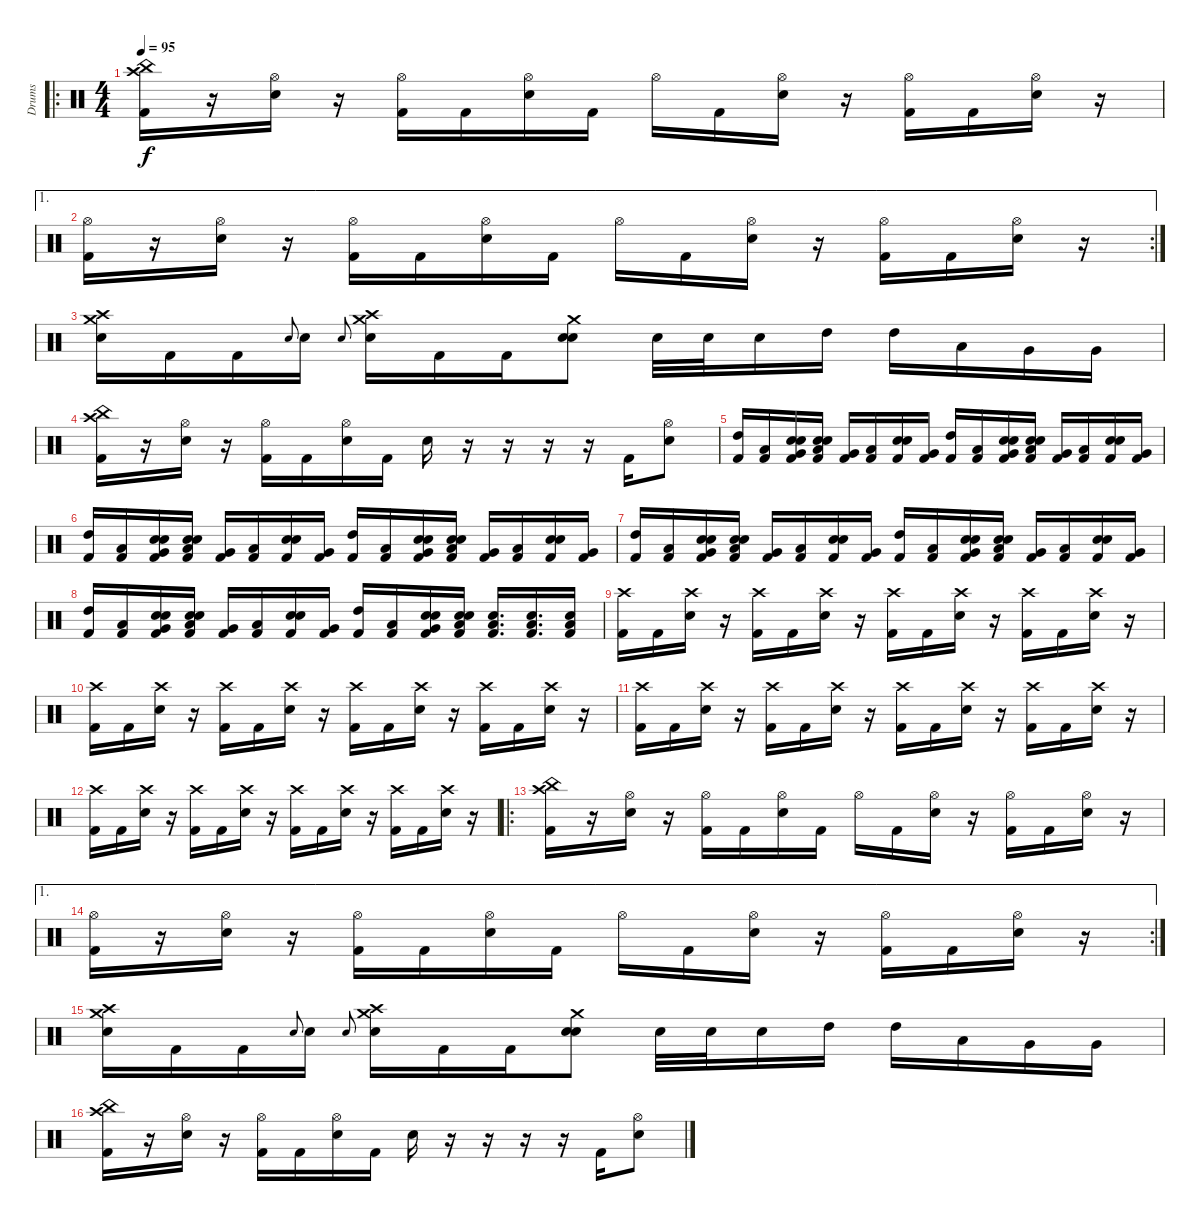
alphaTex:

\track ("Drums" "Drums") {instrument percussion}
\staff {score}
\articulation defaults
\ro
\ts (4 4)
\tempo 95
\clef neutral
\ks c
("Crash high (hit)" "China (hit)" "Kick (hit) 2").16{dy f} r.16 ("Hi-Hat (open)" "Electric Snare (hit)").16 r.16 ("Hi-Hat (open)" "Kick (hit) 2").16 "Kick (hit) 2".16 ("Hi-Hat (open)" "Electric Snare (hit)").16 "Kick (hit) 2".16 "Hi-Hat (open)".16 "Kick (hit) 2".16 ("Hi-Hat (open)" "Electric Snare (hit)").16 r.16 ("Hi-Hat (open)" "Kick (hit) 2").16 "Kick (hit) 2".16 ("Hi-Hat (open)" "Electric Snare (hit)").16 r.16 |
\ae 1
\rc 2
("Hi-Hat (open)" "Kick (hit) 2").16 r.16 ("Hi-Hat (open)" "Electric Snare (hit)").16 r.16 ("Hi-Hat (open)" "Kick (hit) 2").16 "Kick (hit) 2".16 ("Hi-Hat (open)" "Electric Snare (hit)").16 "Kick (hit) 2".16 "Hi-Hat (open)".16 "Kick (hit) 2".16 ("Hi-Hat (open)" "Electric Snare (hit)").16 r.16 ("Hi-Hat (open)" "Kick (hit) 2").16 "Kick (hit) 2".16 ("Hi-Hat (open)" "Electric Snare (hit)").16 r.16 |
("Crash high (hit)" "Crash medium (hit)" "Electric Snare (hit)").16 "Kick (hit) 2".16 "Kick (hit) 2".16 "Electric Snare (hit)".8{gr onbeat} "Electric Snare (hit)".16 "Electric Snare (hit)".8{gr onbeat} ("Crash high (hit)" "Crash medium (hit)" "Electric Snare (hit)").16 "Kick (hit) 2".16 "Kick (hit) 2".16 ("Electric Snare (hit)" "Crash medium (hit)" "Electric Snare (hit)").8 "Electric Snare (hit)".32 "Electric Snare (hit)".32 "Electric Snare (hit)".16 "High Tom (hit)".16 "High Tom (hit)".16 "Low Tom (hit)".16 "Very Low Tom (hit)".16 "Very Low Tom (hit)".16 |
("Crash high (hit)" "China (hit)" "Kick (hit) 2").16 r.16 ("Hi-Hat (open)" "Electric Snare (hit)").16 r.16 ("Hi-Hat (open)" "Kick (hit) 2").16 "Kick (hit) 2".16 ("Hi-Hat (open)" "Electric Snare (hit)").16 "Kick (hit) 2".16 "Electric Snare (hit)".16 r.16 r.16 r.16 r.16 "Kick (hit) 2".16 ("Hi-Hat (open)" "Electric Snare (hit)").8 |
("Kick (hit) 2" "High Tom (hit)").16 ("Kick (hit) 2" "Low Tom (hit)").16 ("Kick (hit) 2" "Electric Snare (hit)" "Very Low Tom (hit)" "Hand Clap (hit)").16 ("Kick (hit) 2" "Electric Snare (hit)" "Low Floor Tom (hit)" "Hand Clap (hit)").16 ("Kick (hit) 2" "Very Low Tom (hit)").16 ("Kick (hit) 2" "Low Tom (hit)").16 ("Kick (hit) 2" "Electric Snare (hit)" "Hand Clap (hit)").16 ("Kick (hit) 2" "Very Low Tom (hit)").16 ("Kick (hit) 2" "High Tom (hit)").16 ("Kick (hit) 2" "Low Tom (hit)").16 ("Kick (hit) 2" "Electric Snare (hit)" "Very Low Tom (hit)" "Hand Clap (hit)").16 ("Kick (hit) 2" "Electric Snare (hit)" "Low Floor Tom (hit)" "Hand Clap (hit)").16 ("Kick (hit) 2" "Very Low Tom (hit)").16 ("Kick (hit) 2" "Low Tom (hit)").16 ("Kick (hit) 2" "Electric Snare (hit)" "Hand Clap (hit)").16 ("Kick (hit) 2" "Very Low Tom (hit)").16 |
("Kick (hit) 2" "High Tom (hit)").16 ("Kick (hit) 2" "Low Tom (hit)").16 ("Kick (hit) 2" "Electric Snare (hit)" "Very Low Tom (hit)" "Hand Clap (hit)").16 ("Kick (hit) 2" "Electric Snare (hit)" "Low Floor Tom (hit)" "Hand Clap (hit)").16 ("Kick (hit) 2" "Very Low Tom (hit)").16 ("Kick (hit) 2" "Low Tom (hit)").16 ("Kick (hit) 2" "Electric Snare (hit)" "Hand Clap (hit)").16 ("Kick (hit) 2" "Very Low Tom (hit)").16 ("Kick (hit) 2" "High Tom (hit)").16 ("Kick (hit) 2" "Low Tom (hit)").16 ("Kick (hit) 2" "Electric Snare (hit)" "Very Low Tom (hit)" "Hand Clap (hit)").16 ("Kick (hit) 2" "Electric Snare (hit)" "Low Floor Tom (hit)" "Hand Clap (hit)").16 ("Kick (hit) 2" "Very Low Tom (hit)").16 ("Kick (hit) 2" "Low Tom (hit)").16 ("Kick (hit) 2" "Electric Snare (hit)" "Hand Clap (hit)").16 ("Kick (hit) 2" "Very Low Tom (hit)").16 |
("Kick (hit) 2" "High Tom (hit)").16 ("Kick (hit) 2" "Low Tom (hit)").16 ("Kick (hit) 2" "Electric Snare (hit)" "Very Low Tom (hit)" "Hand Clap (hit)").16 ("Kick (hit) 2" "Electric Snare (hit)" "Low Floor Tom (hit)" "Hand Clap (hit)").16 ("Kick (hit) 2" "Very Low Tom (hit)").16 ("Kick (hit) 2" "Low Tom (hit)").16 ("Kick (hit) 2" "Electric Snare (hit)" "Hand Clap (hit)").16 ("Kick (hit) 2" "Very Low Tom (hit)").16 ("Kick (hit) 2" "High Tom (hit)").16 ("Kick (hit) 2" "Low Tom (hit)").16 ("Kick (hit) 2" "Electric Snare (hit)" "Very Low Tom (hit)" "Hand Clap (hit)").16 ("Kick (hit) 2" "Electric Snare (hit)" "Low Floor Tom (hit)" "Hand Clap (hit)").16 ("Kick (hit) 2" "Very Low Tom (hit)").16 ("Kick (hit) 2" "Low Tom (hit)").16 ("Kick (hit) 2" "Electric Snare (hit)" "Hand Clap (hit)").16 ("Kick (hit) 2" "Very Low Tom (hit)").16 |
("Kick (hit) 2" "High Tom (hit)").16 ("Kick (hit) 2" "Low Tom (hit)").16 ("Kick (hit) 2" "Electric Snare (hit)" "Very Low Tom (hit)" "Hand Clap (hit)").16 ("Kick (hit) 2" "Electric Snare (hit)" "Low Floor Tom (hit)" "Hand Clap (hit)").16 ("Kick (hit) 2" "Very Low Tom (hit)").16 ("Kick (hit) 2" "Low Tom (hit)").16 ("Kick (hit) 2" "Electric Snare (hit)" "Hand Clap (hit)").16 ("Kick (hit) 2" "Very Low Tom (hit)").16 ("Kick (hit) 2" "High Tom (hit)").16 ("Kick (hit) 2" "Low Tom (hit)").16 ("Kick (hit) 2" "Electric Snare (hit)" "Very Low Tom (hit)" "Hand Clap (hit)").16 ("Kick (hit) 2" "Electric Snare (hit)" "Low Floor Tom (hit)" "Hand Clap (hit)").16 ("Low Floor Tom (hit)" "Electric Snare (hit)" "Kick (hit) 2").16{d} ("Low Floor Tom (hit)" "Electric Snare (hit)" "Kick (hit) 2").16{d} ("Low Floor Tom (hit)" "Electric Snare (hit)" "Kick (hit) 2").16 |
("Crash high (hit)" "Kick (hit) 2").16 "Kick (hit) 2".16 ("Crash high (hit)" "Electric Snare (hit)").16 r.16 ("Crash high (hit)" "Kick (hit) 2").16 "Kick (hit) 2".16 ("Crash high (hit)" "Electric Snare (hit)").16 r.16 ("Crash high (hit)" "Kick (hit) 2").16 "Kick (hit) 2".16 ("Crash high (hit)" "Electric Snare (hit)").16 r.16 ("Crash high (hit)" "Kick (hit) 2").16 "Kick (hit) 2".16 ("Crash high (hit)" "Electric Snare (hit)").16 r.16 |
("Crash high (hit)" "Kick (hit) 2").16 "Kick (hit) 2".16 ("Crash high (hit)" "Electric Snare (hit)").16 r.16 ("Crash high (hit)" "Kick (hit) 2").16 "Kick (hit) 2".16 ("Crash high (hit)" "Electric Snare (hit)").16 r.16 ("Crash high (hit)" "Kick (hit) 2").16 "Kick (hit) 2".16 ("Crash high (hit)" "Electric Snare (hit)").16 r.16 ("Crash high (hit)" "Kick (hit) 2").16 "Kick (hit) 2".16 ("Crash high (hit)" "Electric Snare (hit)").16 r.16 |
("Crash high (hit)" "Kick (hit) 2").16 "Kick (hit) 2".16 ("Crash high (hit)" "Electric Snare (hit)").16 r.16 ("Crash high (hit)" "Kick (hit) 2").16 "Kick (hit) 2".16 ("Crash high (hit)" "Electric Snare (hit)").16 r.16 ("Crash high (hit)" "Kick (hit) 2").16 "Kick (hit) 2".16 ("Crash high (hit)" "Electric Snare (hit)").16 r.16 ("Crash high (hit)" "Kick (hit) 2").16 "Kick (hit) 2".16 ("Crash high (hit)" "Electric Snare (hit)").16 r.16 |
("Crash high (hit)" "Kick (hit) 2").16 "Kick (hit) 2".16 ("Crash high (hit)" "Electric Snare (hit)").16 r.16 ("Crash high (hit)" "Kick (hit) 2").16 "Kick (hit) 2".16 ("Crash high (hit)" "Electric Snare (hit)").16 r.16 ("Crash high (hit)" "Kick (hit) 2").16 "Kick (hit) 2".16 ("Crash high (hit)" "Electric Snare (hit)").16 r.16 ("Crash high (hit)" "Kick (hit) 2").16 "Kick (hit) 2".16 ("Crash high (hit)" "Electric Snare (hit)").16 r.16 |
\ro
("Crash high (hit)" "China (hit)" "Kick (hit) 2").16 r.16 ("Hi-Hat (open)" "Electric Snare (hit)").16 r.16 ("Hi-Hat (open)" "Kick (hit) 2").16 "Kick (hit) 2".16 ("Hi-Hat (open)" "Electric Snare (hit)").16 "Kick (hit) 2".16 "Hi-Hat (open)".16 "Kick (hit) 2".16 ("Hi-Hat (open)" "Electric Snare (hit)").16 r.16 ("Hi-Hat (open)" "Kick (hit) 2").16 "Kick (hit) 2".16 ("Hi-Hat (open)" "Electric Snare (hit)").16 r.16 |
\ae 1
\rc 2
("Hi-Hat (open)" "Kick (hit) 2").16 r.16 ("Hi-Hat (open)" "Electric Snare (hit)").16 r.16 ("Hi-Hat (open)" "Kick (hit) 2").16 "Kick (hit) 2".16 ("Hi-Hat (open)" "Electric Snare (hit)").16 "Kick (hit) 2".16 "Hi-Hat (open)".16 "Kick (hit) 2".16 ("Hi-Hat (open)" "Electric Snare (hit)").16 r.16 ("Hi-Hat (open)" "Kick (hit) 2").16 "Kick (hit) 2".16 ("Hi-Hat (open)" "Electric Snare (hit)").16 r.16 |
("Crash high (hit)" "Crash medium (hit)" "Electric Snare (hit)").16 "Kick (hit) 2".16 "Kick (hit) 2".16 "Electric Snare (hit)".8{gr onbeat} "Electric Snare (hit)".16 "Electric Snare (hit)".8{gr onbeat} ("Crash high (hit)" "Crash medium (hit)" "Electric Snare (hit)").16 "Kick (hit) 2".16 "Kick (hit) 2".16 ("Electric Snare (hit)" "Crash medium (hit)" "Electric Snare (hit)").8 "Electric Snare (hit)".32 "Electric Snare (hit)".32 "Electric Snare (hit)".16 "High Tom (hit)".16 "High Tom (hit)".16 "Low Tom (hit)".16 "Very Low Tom (hit)".16 "Very Low Tom (hit)".16 |
("Crash high (hit)" "China (hit)" "Kick (hit) 2").16 r.16 ("Hi-Hat (open)" "Electric Snare (hit)").16 r.16 ("Hi-Hat (open)" "Kick (hit) 2").16 "Kick (hit) 2".16 ("Hi-Hat (open)" "Electric Snare (hit)").16 "Kick (hit) 2".16 "Electric Snare (hit)".16 r.16 r.16 r.16 r.16 "Kick (hit) 2".16 ("Hi-Hat (open)" "Electric Snare (hit)").8
